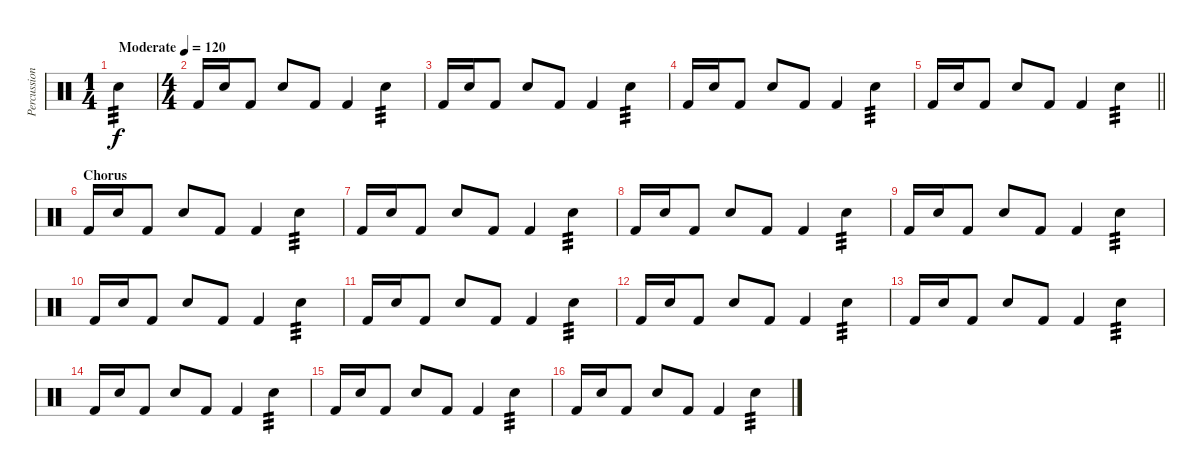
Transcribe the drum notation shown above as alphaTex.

\track ("Percussion" "Percussion") {instrument percussion}
\staff {score}
\articulation defaults
\ts (1 4)
\tempo (120 "Moderate")
\clef neutral
\ks c "Electric Snare (hit)".4{tp 3 dy f}
|
\ts (4 4)
"Kick (hit) 2".16 "Electric Snare (hit)".16 "Kick (hit) 2".8 "Electric Snare (hit)".8 "Kick (hit) 2".8 "Kick (hit) 2".4 "Electric Snare (hit)".4{tp 3} |
"Kick (hit) 2".16 "Electric Snare (hit)".16 "Kick (hit) 2".8 "Electric Snare (hit)".8 "Kick (hit) 2".8 "Kick (hit) 2".4 "Electric Snare (hit)".4{tp 3} |
"Kick (hit) 2".16 "Electric Snare (hit)".16 "Kick (hit) 2".8 "Electric Snare (hit)".8 "Kick (hit) 2".8 "Kick (hit) 2".4 "Electric Snare (hit)".4{tp 3} |
\barLineRight lightlight "Kick (hit) 2".16 "Electric Snare (hit)".16 "Kick (hit) 2".8 "Electric Snare (hit)".8 "Kick (hit) 2".8 "Kick (hit) 2".4 "Electric Snare (hit)".4{tp 3}
|
\section ("" "Chorus ")
"Kick (hit) 2".16 "Electric Snare (hit)".16 "Kick (hit) 2".8 "Electric Snare (hit)".8 "Kick (hit) 2".8 "Kick (hit) 2".4 "Electric Snare (hit)".4{tp 3} |
"Kick (hit) 2".16 "Electric Snare (hit)".16 "Kick (hit) 2".8 "Electric Snare (hit)".8 "Kick (hit) 2".8 "Kick (hit) 2".4 "Electric Snare (hit)".4{tp 3} |
"Kick (hit) 2".16 "Electric Snare (hit)".16 "Kick (hit) 2".8 "Electric Snare (hit)".8 "Kick (hit) 2".8 "Kick (hit) 2".4 "Electric Snare (hit)".4{tp 3} |
"Kick (hit) 2".16 "Electric Snare (hit)".16 "Kick (hit) 2".8 "Electric Snare (hit)".8 "Kick (hit) 2".8 "Kick (hit) 2".4 "Electric Snare (hit)".4{tp 3} |
"Kick (hit) 2".16 "Electric Snare (hit)".16 "Kick (hit) 2".8 "Electric Snare (hit)".8 "Kick (hit) 2".8 "Kick (hit) 2".4 "Electric Snare (hit)".4{tp 3} |
"Kick (hit) 2".16 "Electric Snare (hit)".16 "Kick (hit) 2".8 "Electric Snare (hit)".8 "Kick (hit) 2".8 "Kick (hit) 2".4 "Electric Snare (hit)".4{tp 3} |
"Kick (hit) 2".16 "Electric Snare (hit)".16 "Kick (hit) 2".8 "Electric Snare (hit)".8 "Kick (hit) 2".8 "Kick (hit) 2".4 "Electric Snare (hit)".4{tp 3} |
"Kick (hit) 2".16 "Electric Snare (hit)".16 "Kick (hit) 2".8 "Electric Snare (hit)".8 "Kick (hit) 2".8 "Kick (hit) 2".4 "Electric Snare (hit)".4{tp 3} |
"Kick (hit) 2".16 "Electric Snare (hit)".16 "Kick (hit) 2".8 "Electric Snare (hit)".8 "Kick (hit) 2".8 "Kick (hit) 2".4 "Electric Snare (hit)".4{tp 3} |
"Kick (hit) 2".16 "Electric Snare (hit)".16 "Kick (hit) 2".8 "Electric Snare (hit)".8 "Kick (hit) 2".8 "Kick (hit) 2".4 "Electric Snare (hit)".4{tp 3} |
"Kick (hit) 2".16 "Electric Snare (hit)".16 "Kick (hit) 2".8 "Electric Snare (hit)".8 "Kick (hit) 2".8 "Kick (hit) 2".4 "Electric Snare (hit)".4{tp 3}
